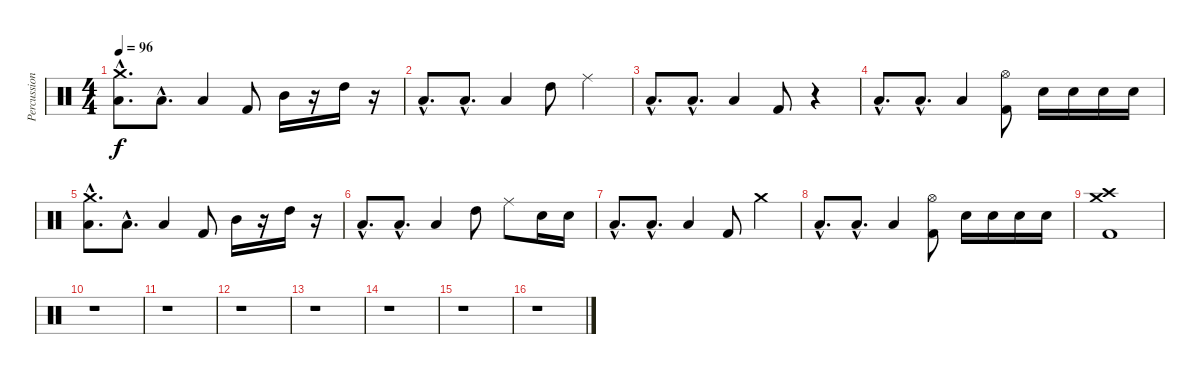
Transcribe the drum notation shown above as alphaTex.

\track ("Percussion" "Percussion") {instrument percussion}
\staff {score}
\articulation defaults
\ts (4 4)
\tempo 96
\clef neutral
\ks c
("Crash medium (hit)"{hac} "Low Floor Tom (hit)"{hac}).8{d dy f} "Low Floor Tom (hit)"{hac}.8{d} "Low Floor Tom (hit)".4 "Kick (hit) 2".8 "Mid Tom (hit)".16 r.16 "High Tom (hit)".16 r.16 |
"Low Floor Tom (hit)"{hac}.8{d} "Low Floor Tom (hit)"{hac}.8{d} "Low Floor Tom (hit)".4 "High Tom (hit)".8 "Ride (middle)".4 |
"Low Floor Tom (hit)"{hac}.8{d} "Low Floor Tom (hit)"{hac}.8{d} "Low Floor Tom (hit)".4 "Kick (hit) 2".8 r.4 |
"Low Floor Tom (hit)"{hac}.8{d} "Low Floor Tom (hit)"{hac}.8{d} "Low Floor Tom (hit)".4 ("Hi-Hat (open)" "Kick (hit) 2").8 "Snare (hit) 2".16 "Snare (hit) 2".16 "Snare (hit) 2".16 "Snare (hit) 2".16 |
("Crash medium (hit)"{hac} "Low Floor Tom (hit)"{hac}).8{d} "Low Floor Tom (hit)"{hac}.8{d} "Low Floor Tom (hit)".4 "Kick (hit) 2".8 "Mid Tom (hit)".16 r.16 "High Tom (hit)".16 r.16 |
"Low Floor Tom (hit)"{hac}.8{d} "Low Floor Tom (hit)"{hac}.8{d} "Low Floor Tom (hit)".4 "High Tom (hit)".8 "Ride (middle)".8 "Snare (hit) 2".16 "Snare (hit) 2".16 |
"Low Floor Tom (hit)"{hac}.8{d} "Low Floor Tom (hit)"{hac}.8{d} "Low Floor Tom (hit)".4 "Kick (hit) 2".8 "Crash medium (hit)".4 |
"Low Floor Tom (hit)"{hac}.8{d} "Low Floor Tom (hit)"{hac}.8{d} "Low Floor Tom (hit)".4 ("Hi-Hat (open)" "Kick (hit) 2").8 "Snare (hit) 2".16 "Snare (hit) 2".16 "Snare (hit) 2".16 "Snare (hit) 2".16 |
("Crash high (hit)" "Crash medium (hit)" "Kick (hit) 2").1 |
r.1 |
r.1 |
r.1 |
r.1 |
r.1 |
r.1 |
r.1
